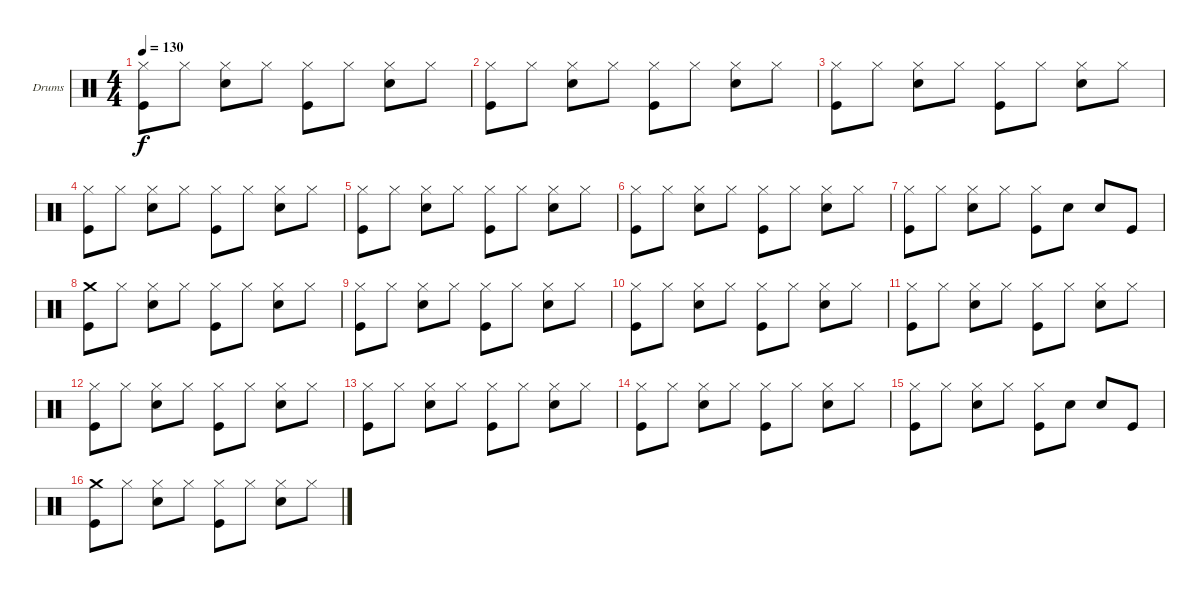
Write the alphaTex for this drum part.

\defaultSystemsLayout 4
\bracketExtendMode groupsimilarinstruments
\firstSystemTrackNameOrientation horizontal
\otherSystemsTrackNameOrientation horizontal
\track ("Stefan Kaufmann" "Drums") {instrument percussion}
\staff {score}
\articulation defaults
\ts (4 4)
\tempo 130
\clef neutral
\ks c
("Hi-Hat (closed)" "Kick (hit)").8{dy f} "Hi-Hat (closed)".8 ("Hi-Hat (closed)" "Snare (hit) 2").8 "Hi-Hat (closed)".8 ("Hi-Hat (closed)" "Kick (hit)").8 "Hi-Hat (closed)".8 ("Hi-Hat (closed)" "Snare (hit) 2").8 "Hi-Hat (closed)".8 |
("Hi-Hat (closed)" "Kick (hit)").8 "Hi-Hat (closed)".8 ("Hi-Hat (closed)" "Snare (hit) 2").8 "Hi-Hat (closed)".8 ("Hi-Hat (closed)" "Kick (hit)").8 "Hi-Hat (closed)".8 ("Hi-Hat (closed)" "Snare (hit) 2").8 "Hi-Hat (closed)".8 |
("Hi-Hat (closed)" "Kick (hit)").8 "Hi-Hat (closed)".8 ("Hi-Hat (closed)" "Snare (hit) 2").8 "Hi-Hat (closed)".8 ("Hi-Hat (closed)" "Kick (hit)").8 "Hi-Hat (closed)".8 ("Hi-Hat (closed)" "Snare (hit) 2").8 "Hi-Hat (closed)".8 |
("Hi-Hat (closed)" "Kick (hit)").8 "Hi-Hat (closed)".8 ("Hi-Hat (closed)" "Snare (hit) 2").8 "Hi-Hat (closed)".8 ("Hi-Hat (closed)" "Kick (hit)").8 "Hi-Hat (closed)".8 ("Hi-Hat (closed)" "Snare (hit) 2").8 "Hi-Hat (closed)".8 |
("Hi-Hat (closed)" "Kick (hit)").8 "Hi-Hat (closed)".8 ("Hi-Hat (closed)" "Snare (hit) 2").8 "Hi-Hat (closed)".8 ("Hi-Hat (closed)" "Kick (hit)").8 "Hi-Hat (closed)".8 ("Hi-Hat (closed)" "Snare (hit) 2").8 "Hi-Hat (closed)".8 |
("Hi-Hat (closed)" "Kick (hit)").8 "Hi-Hat (closed)".8 ("Hi-Hat (closed)" "Snare (hit) 2").8 "Hi-Hat (closed)".8 ("Hi-Hat (closed)" "Kick (hit)").8 "Hi-Hat (closed)".8 ("Hi-Hat (closed)" "Snare (hit) 2").8 "Hi-Hat (closed)".8 |
("Hi-Hat (closed)" "Kick (hit)").8 "Hi-Hat (closed)".8 ("Hi-Hat (closed)" "Snare (hit) 2").8 "Hi-Hat (closed)".8 ("Hi-Hat (closed)" "Kick (hit)").8 "Snare (hit) 2".8 "Snare (hit) 2".8 "Kick (hit)".8 |
("Crash medium (hit)" "Kick (hit)").8 "Hi-Hat (closed)".8 ("Hi-Hat (closed)" "Snare (hit) 2").8 "Hi-Hat (closed)".8 ("Hi-Hat (closed)" "Kick (hit)").8 "Hi-Hat (closed)".8 ("Hi-Hat (closed)" "Snare (hit) 2").8 "Hi-Hat (closed)".8 |
("Hi-Hat (closed)" "Kick (hit)").8 "Hi-Hat (closed)".8 ("Hi-Hat (closed)" "Snare (hit) 2").8 "Hi-Hat (closed)".8 ("Hi-Hat (closed)" "Kick (hit)").8 "Hi-Hat (closed)".8 ("Hi-Hat (closed)" "Snare (hit) 2").8 "Hi-Hat (closed)".8 |
("Hi-Hat (closed)" "Kick (hit)").8 "Hi-Hat (closed)".8 ("Hi-Hat (closed)" "Snare (hit) 2").8 "Hi-Hat (closed)".8 ("Hi-Hat (closed)" "Kick (hit)").8 "Hi-Hat (closed)".8 ("Hi-Hat (closed)" "Snare (hit) 2").8 "Hi-Hat (closed)".8 |
("Hi-Hat (closed)" "Kick (hit)").8 "Hi-Hat (closed)".8 ("Hi-Hat (closed)" "Snare (hit) 2").8 "Hi-Hat (closed)".8 ("Hi-Hat (closed)" "Kick (hit)").8 "Hi-Hat (closed)".8 ("Hi-Hat (closed)" "Snare (hit) 2").8 "Hi-Hat (closed)".8 |
("Hi-Hat (closed)" "Kick (hit)").8 "Hi-Hat (closed)".8 ("Hi-Hat (closed)" "Snare (hit) 2").8 "Hi-Hat (closed)".8 ("Hi-Hat (closed)" "Kick (hit)").8 "Hi-Hat (closed)".8 ("Hi-Hat (closed)" "Snare (hit) 2").8 "Hi-Hat (closed)".8 |
("Hi-Hat (closed)" "Kick (hit)").8 "Hi-Hat (closed)".8 ("Hi-Hat (closed)" "Snare (hit) 2").8 "Hi-Hat (closed)".8 ("Hi-Hat (closed)" "Kick (hit)").8 "Hi-Hat (closed)".8 ("Hi-Hat (closed)" "Snare (hit) 2").8 "Hi-Hat (closed)".8 |
("Hi-Hat (closed)" "Kick (hit)").8 "Hi-Hat (closed)".8 ("Hi-Hat (closed)" "Snare (hit) 2").8 "Hi-Hat (closed)".8 ("Hi-Hat (closed)" "Kick (hit)").8 "Hi-Hat (closed)".8 ("Hi-Hat (closed)" "Snare (hit) 2").8 "Hi-Hat (closed)".8 |
("Hi-Hat (closed)" "Kick (hit)").8 "Hi-Hat (closed)".8 ("Hi-Hat (closed)" "Snare (hit) 2").8 "Hi-Hat (closed)".8 ("Hi-Hat (closed)" "Kick (hit)").8 "Snare (hit) 2".8 "Snare (hit) 2".8 "Kick (hit)".8 |
("Crash medium (hit)" "Kick (hit)").8 "Hi-Hat (closed)".8 ("Hi-Hat (closed)" "Snare (hit) 2").8 "Hi-Hat (closed)".8 ("Hi-Hat (closed)" "Kick (hit)").8 "Hi-Hat (closed)".8 ("Hi-Hat (closed)" "Snare (hit) 2").8 "Hi-Hat (closed)".8
